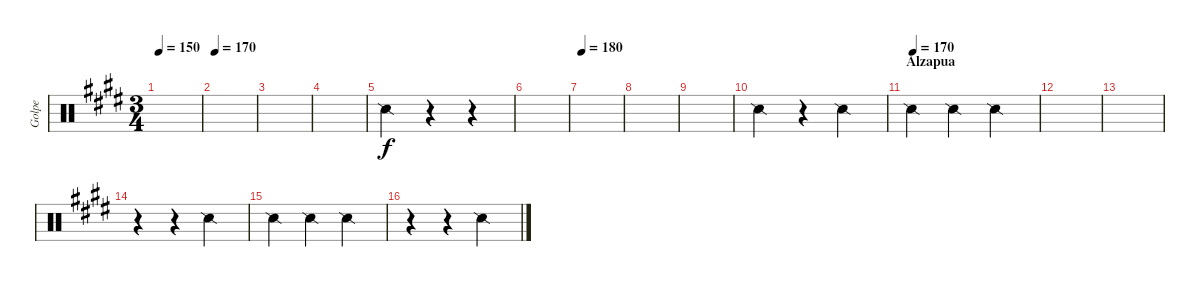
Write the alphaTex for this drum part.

\track ("Golpe" "Golpe") {instrument percussion}
\staff {score}
\articulation defaults
\ts (3 4)
\tempo 150
\clef neutral
\ks e
|
\tempo 170
|
|
|
"Snare (side stick) 2".4 r.4 r.4 |
|
\tempo 180
|
|
|
"Snare (side stick) 2".4 r.4 "Snare (side stick) 2".4 |
\section ("" "Alzapua")
\tempo (170)
"Snare (side stick) 2".4 "Snare (side stick) 2".4 "Snare (side stick) 2".4 |
|
|
r.4 r.4 "Snare (side stick) 2".4 |
"Snare (side stick) 2".4 "Snare (side stick) 2".4 "Snare (side stick) 2".4 |
r.4 r.4 "Snare (side stick) 2".4
